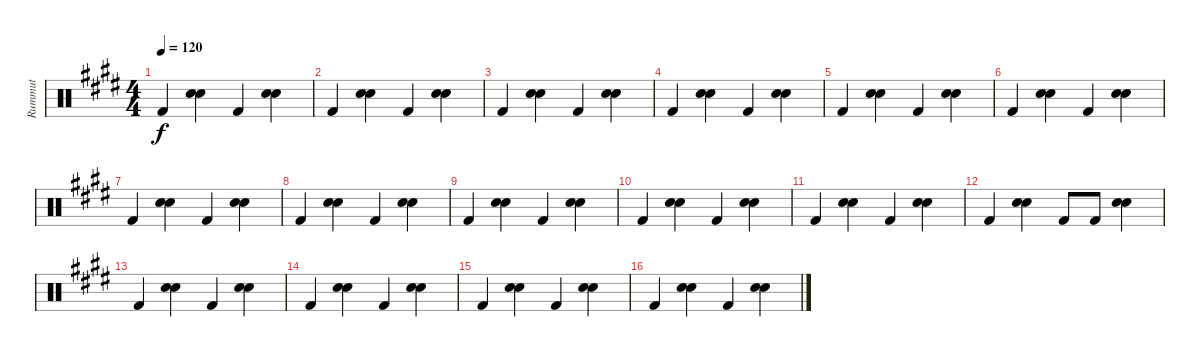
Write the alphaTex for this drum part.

\track ("Rummut" "Rummut") {instrument percussion}
\staff {score}
\articulation defaults
\ts (4 4)
\tempo 120
\clef neutral
\ks e "Kick (hit) 2".4{dy f}
("Electric Snare (hit)" "Hand Clap (hit)").4{bd 120} "Kick (hit) 2".4 ("Electric Snare (hit)" "Hand Clap (hit)").4{bd 120} |
"Kick (hit) 2".4 ("Electric Snare (hit)" "Hand Clap (hit)").4{bd 120} "Kick (hit) 2".4 ("Electric Snare (hit)" "Hand Clap (hit)").4{bd 120} |
"Kick (hit) 2".4 ("Electric Snare (hit)" "Hand Clap (hit)").4{bd 120} "Kick (hit) 2".4 ("Electric Snare (hit)" "Hand Clap (hit)").4{bd 120} |
"Kick (hit) 2".4 ("Electric Snare (hit)" "Hand Clap (hit)").4{bd 120} "Kick (hit) 2".4 ("Electric Snare (hit)" "Hand Clap (hit)").4{bd 120} |
"Kick (hit) 2".4 ("Electric Snare (hit)" "Hand Clap (hit)").4{bd 120} "Kick (hit) 2".4 ("Electric Snare (hit)" "Hand Clap (hit)").4{bd 120} |
"Kick (hit) 2".4 ("Electric Snare (hit)" "Hand Clap (hit)").4{bd 120} "Kick (hit) 2".4 ("Electric Snare (hit)" "Hand Clap (hit)").4{bd 120} |
"Kick (hit) 2".4 ("Electric Snare (hit)" "Hand Clap (hit)").4{bd 120} "Kick (hit) 2".4 ("Electric Snare (hit)" "Hand Clap (hit)").4{bd 120} |
"Kick (hit) 2".4 ("Electric Snare (hit)" "Hand Clap (hit)").4{bd 120} "Kick (hit) 2".4 ("Electric Snare (hit)" "Hand Clap (hit)").4{bd 120} |
"Kick (hit) 2".4 ("Electric Snare (hit)" "Hand Clap (hit)").4{bd 120} "Kick (hit) 2".4 ("Electric Snare (hit)" "Hand Clap (hit)").4{bd 120} |
"Kick (hit) 2".4 ("Electric Snare (hit)" "Hand Clap (hit)").4{bd 120} "Kick (hit) 2".4 ("Electric Snare (hit)" "Hand Clap (hit)").4{bd 120} |
"Kick (hit) 2".4 ("Electric Snare (hit)" "Hand Clap (hit)").4{bd 120} "Kick (hit) 2".4 ("Electric Snare (hit)" "Hand Clap (hit)").4{bd 120} |
"Kick (hit) 2".4 ("Electric Snare (hit)" "Hand Clap (hit)").4{bd 120} "Kick (hit) 2".8 "Kick (hit) 2".8 ("Electric Snare (hit)" "Hand Clap (hit)").4{bd 120} |
"Kick (hit) 2".4 ("Electric Snare (hit)" "Hand Clap (hit)").4{bd 120} "Kick (hit) 2".4 ("Electric Snare (hit)" "Hand Clap (hit)").4{bd 120} |
"Kick (hit) 2".4 ("Electric Snare (hit)" "Hand Clap (hit)").4{bd 120} "Kick (hit) 2".4 ("Electric Snare (hit)" "Hand Clap (hit)").4{bd 120} |
"Kick (hit) 2".4 ("Electric Snare (hit)" "Hand Clap (hit)").4{bd 120} "Kick (hit) 2".4 ("Electric Snare (hit)" "Hand Clap (hit)").4{bd 120} |
"Kick (hit) 2".4 ("Electric Snare (hit)" "Hand Clap (hit)").4{bd 120} "Kick (hit) 2".4 ("Electric Snare (hit)" "Hand Clap (hit)").4{bd 120}
